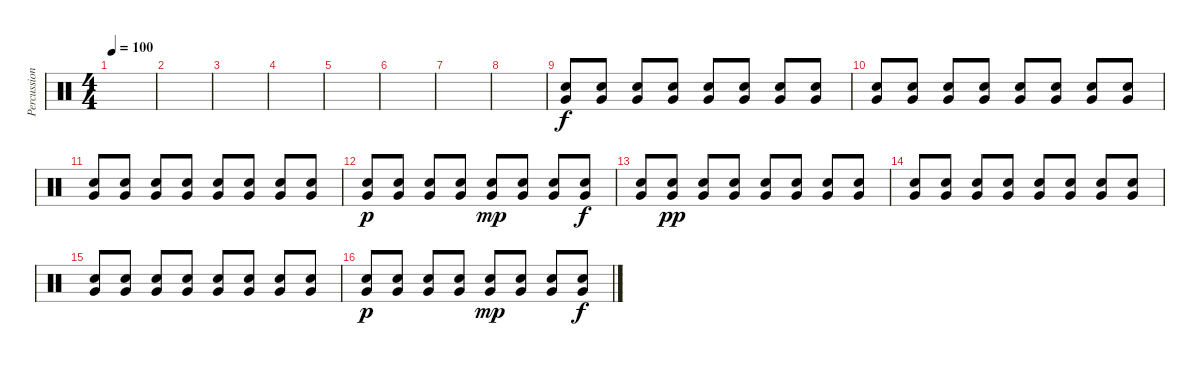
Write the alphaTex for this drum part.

\track ("Percussion" "Percussion") {instrument percussion}
\staff {score}
\articulation defaults
\ts (4 4)
\tempo 100
\clef neutral
\ks c
|
|
|
|
|
|
|
|
("Electric Snare (hit)" "Very Low Tom (hit)").8 ("Electric Snare (hit)" "Very Low Tom (hit)").8 ("Electric Snare (hit)" "Very Low Tom (hit)").8 ("Electric Snare (hit)" "Very Low Tom (hit)").8 ("Electric Snare (hit)" "Very Low Tom (hit)").8 ("Electric Snare (hit)" "Very Low Tom (hit)").8 ("Electric Snare (hit)" "Very Low Tom (hit)").8 ("Electric Snare (hit)" "Very Low Tom (hit)").8 |
("Electric Snare (hit)" "Very Low Tom (hit)").8 ("Electric Snare (hit)" "Very Low Tom (hit)").8 ("Electric Snare (hit)" "Very Low Tom (hit)").8 ("Electric Snare (hit)" "Very Low Tom (hit)").8 ("Electric Snare (hit)" "Very Low Tom (hit)").8 ("Electric Snare (hit)" "Very Low Tom (hit)").8 ("Electric Snare (hit)" "Very Low Tom (hit)").8 ("Electric Snare (hit)" "Very Low Tom (hit)").8 |
("Electric Snare (hit)" "Very Low Tom (hit)").8 ("Electric Snare (hit)" "Very Low Tom (hit)").8 ("Electric Snare (hit)" "Very Low Tom (hit)").8 ("Electric Snare (hit)" "Very Low Tom (hit)").8 ("Electric Snare (hit)" "Very Low Tom (hit)").8 ("Electric Snare (hit)" "Very Low Tom (hit)").8 ("Electric Snare (hit)" "Very Low Tom (hit)").8 ("Electric Snare (hit)" "Very Low Tom (hit)").8 |
("Electric Snare (hit)" "Very Low Tom (hit)").8{dy p} ("Electric Snare (hit)" "Very Low Tom (hit)").8 ("Electric Snare (hit)" "Very Low Tom (hit)").8 ("Electric Snare (hit)" "Very Low Tom (hit)").8 ("Electric Snare (hit)" "Very Low Tom (hit)").8{dy mp} ("Electric Snare (hit)" "Very Low Tom (hit)").8 ("Electric Snare (hit)" "Very Low Tom (hit)").8 ("Electric Snare (hit)" "Very Low Tom (hit)").8{dy f} |
("Electric Snare (hit)" "Very Low Tom (hit)").8 ("Electric Snare (hit)" "Very Low Tom (hit)").8{dy pp} ("Electric Snare (hit)" "Very Low Tom (hit)").8 ("Electric Snare (hit)" "Very Low Tom (hit)").8 ("Electric Snare (hit)" "Very Low Tom (hit)").8 ("Electric Snare (hit)" "Very Low Tom (hit)").8 ("Electric Snare (hit)" "Very Low Tom (hit)").8 ("Electric Snare (hit)" "Very Low Tom (hit)").8 |
("Electric Snare (hit)" "Very Low Tom (hit)").8 ("Electric Snare (hit)" "Very Low Tom (hit)").8 ("Electric Snare (hit)" "Very Low Tom (hit)").8 ("Electric Snare (hit)" "Very Low Tom (hit)").8 ("Electric Snare (hit)" "Very Low Tom (hit)").8 ("Electric Snare (hit)" "Very Low Tom (hit)").8 ("Electric Snare (hit)" "Very Low Tom (hit)").8 ("Electric Snare (hit)" "Very Low Tom (hit)").8 |
("Electric Snare (hit)" "Very Low Tom (hit)").8 ("Electric Snare (hit)" "Very Low Tom (hit)").8 ("Electric Snare (hit)" "Very Low Tom (hit)").8 ("Electric Snare (hit)" "Very Low Tom (hit)").8 ("Electric Snare (hit)" "Very Low Tom (hit)").8 ("Electric Snare (hit)" "Very Low Tom (hit)").8 ("Electric Snare (hit)" "Very Low Tom (hit)").8 ("Electric Snare (hit)" "Very Low Tom (hit)").8 |
("Electric Snare (hit)" "Very Low Tom (hit)").8{dy p} ("Electric Snare (hit)" "Very Low Tom (hit)").8 ("Electric Snare (hit)" "Very Low Tom (hit)").8 ("Electric Snare (hit)" "Very Low Tom (hit)").8 ("Electric Snare (hit)" "Very Low Tom (hit)").8{dy mp} ("Electric Snare (hit)" "Very Low Tom (hit)").8 ("Electric Snare (hit)" "Very Low Tom (hit)").8 ("Electric Snare (hit)" "Very Low Tom (hit)").8{dy f}
